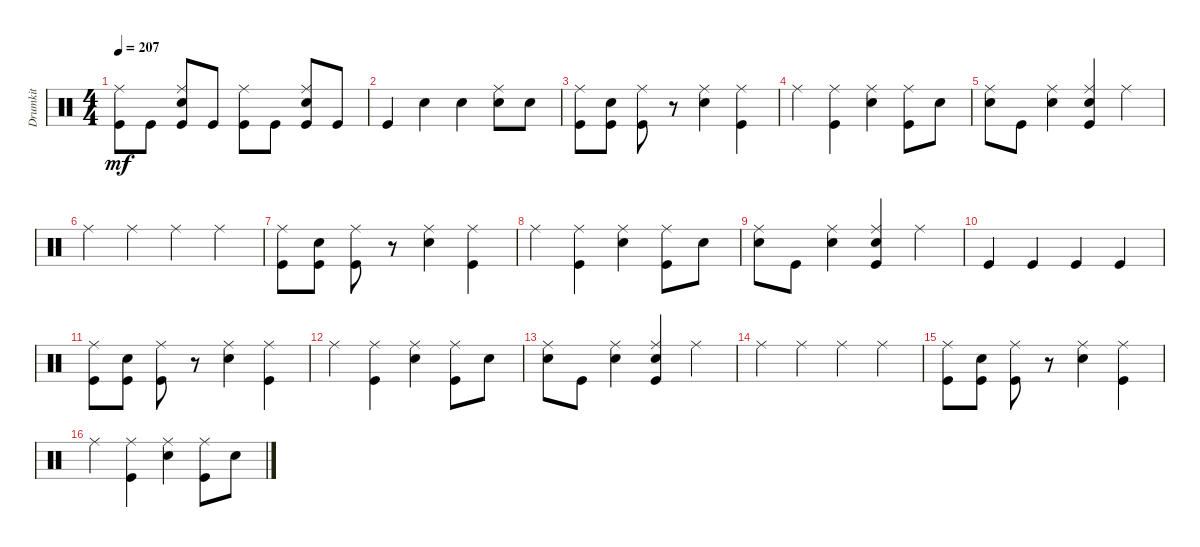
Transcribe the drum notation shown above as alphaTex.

\track ("Drumkit" "Drumkit") {instrument percussion}
\staff {score}
\articulation defaults
\ts (4 4)
\tempo 207
\clef neutral
\ks c
("Kick (hit)" "Ride (middle)").8{dy mf} "Kick (hit)".8 ("Snare (hit) 2" "Ride (middle)" "Kick (hit)").8 "Kick (hit)".8 ("Kick (hit)" "Ride (middle)").8 "Kick (hit)".8 ("Snare (hit) 2" "Ride (middle)" "Kick (hit)").8 "Kick (hit)".8 |
"Kick (hit)".4 "Snare (hit) 2".4 "Snare (hit) 2".4 ("Ride (middle)" "Snare (hit) 2").8 "Snare (hit) 2".8 |
("Ride (middle)" "Kick (hit)").8 ("Snare (hit) 2" "Kick (hit)").8 ("Ride (middle)" "Kick (hit)").8 r.8 ("Snare (hit) 2" "Ride (middle)").4 ("Ride (middle)" "Kick (hit)").4 |
"Ride (middle)".4 ("Ride (middle)" "Kick (hit)").4 ("Ride (middle)" "Snare (hit) 2").4 ("Kick (hit)" "Ride (middle)").8 "Snare (hit) 2".8 |
("Ride (middle)" "Snare (hit) 2").8 "Kick (hit)".8 ("Ride (middle)" "Snare (hit) 2").4 ("Ride (middle)" "Kick (hit)" "Snare (hit) 2").4 "Ride (middle)".4 |
"Ride (middle)".4 "Ride (middle)".4 "Ride (middle)".4 "Ride (middle)".4 |
("Ride (middle)" "Kick (hit)").8 ("Snare (hit) 2" "Kick (hit)").8 ("Ride (middle)" "Kick (hit)").8 r.8 ("Snare (hit) 2" "Ride (middle)").4 ("Ride (middle)" "Kick (hit)").4 |
"Ride (middle)".4 ("Ride (middle)" "Kick (hit)").4 ("Ride (middle)" "Snare (hit) 2").4 ("Kick (hit)" "Ride (middle)").8 "Snare (hit) 2".8 |
("Ride (middle)" "Snare (hit) 2").8 "Kick (hit)".8 ("Ride (middle)" "Snare (hit) 2").4 ("Ride (middle)" "Kick (hit)" "Snare (hit) 2").4 "Ride (middle)".4 |
"Kick (hit)".4 "Kick (hit)".4 "Kick (hit)".4 "Kick (hit)".4 |
("Ride (middle)" "Kick (hit)").8 ("Snare (hit) 2" "Kick (hit)").8 ("Ride (middle)" "Kick (hit)").8 r.8 ("Snare (hit) 2" "Ride (middle)").4 ("Ride (middle)" "Kick (hit)").4 |
"Ride (middle)".4 ("Ride (middle)" "Kick (hit)").4 ("Ride (middle)" "Snare (hit) 2").4 ("Kick (hit)" "Ride (middle)").8 "Snare (hit) 2".8 |
("Ride (middle)" "Snare (hit) 2").8 "Kick (hit)".8 ("Ride (middle)" "Snare (hit) 2").4 ("Ride (middle)" "Kick (hit)" "Snare (hit) 2").4 "Ride (middle)".4 |
"Ride (middle)".4 "Ride (middle)".4 "Ride (middle)".4 "Ride (middle)".4 |
("Ride (middle)" "Kick (hit)").8 ("Snare (hit) 2" "Kick (hit)").8 ("Ride (middle)" "Kick (hit)").8 r.8 ("Snare (hit) 2" "Ride (middle)").4 ("Ride (middle)" "Kick (hit)").4 |
"Ride (middle)".4 ("Ride (middle)" "Kick (hit)").4 ("Ride (middle)" "Snare (hit) 2").4 ("Kick (hit)" "Ride (middle)").8 "Snare (hit) 2".8
